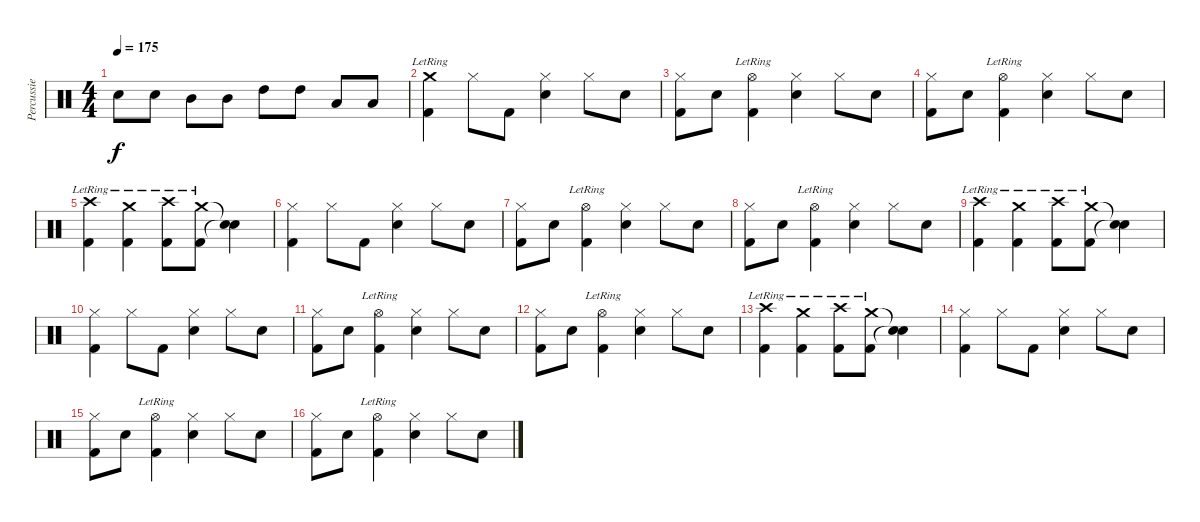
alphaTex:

\track ("Percussie" "Percussie") {instrument percussion}
\staff {score}
\articulation defaults
\ts (4 4)
\tempo 175
\clef neutral
\ks c "Snare (hit) 2".8{dy f} "Snare (hit) 2".8 "Mid Tom (hit)".8 "Mid Tom (hit)".8 "High Tom (hit)".8 "High Tom (hit)".8 "Low Tom (hit)".8 "Low Tom (hit)".8
|
("Crash medium (hit)"{lr} "Kick (hit) 2").4 "Hi-Hat (closed)".8 "Kick (hit) 2".8 ("Hi-Hat (closed)" "Snare (hit) 2").4 "Hi-Hat (closed)".8 "Snare (hit) 2".8 |
("Hi-Hat (closed)" "Kick (hit) 2").8 "Snare (hit) 2".8 ("Hi-Hat (open)"{lr} "Kick (hit) 2").4 ("Hi-Hat (closed)" "Snare (hit) 2").4 "Hi-Hat (closed)".8 "Snare (hit) 2".8 |
("Hi-Hat (closed)" "Kick (hit) 2").8 "Snare (hit) 2".8 ("Hi-Hat (open)"{lr} "Kick (hit) 2").4 ("Hi-Hat (closed)" "Snare (hit) 2").4 "Hi-Hat (closed)".8 "Snare (hit) 2".8 |
("Crash high (hit)"{lr} "Kick (hit) 2").4 ("Crash medium (hit)"{lr} "Kick (hit) 2").4 ("Crash high (hit)"{lr} "Kick (hit) 2").8 ("Crash medium (hit)"{lr} "Kick (hit) 2").8 ("Snare (hit)"{t} "Snare (hit)"{t}).4 |
("Hi-Hat (closed)" "Kick (hit) 2").4 "Hi-Hat (closed)".8 "Kick (hit) 2".8 ("Hi-Hat (closed)" "Snare (hit) 2").4 "Hi-Hat (closed)".8 "Snare (hit) 2".8 |
("Hi-Hat (closed)" "Kick (hit) 2").8 "Snare (hit) 2".8 ("Hi-Hat (open)"{lr} "Kick (hit) 2").4 ("Hi-Hat (closed)" "Snare (hit) 2").4 "Hi-Hat (closed)".8 "Snare (hit) 2".8 |
("Hi-Hat (closed)" "Kick (hit) 2").8 "Snare (hit) 2".8 ("Hi-Hat (open)"{lr} "Kick (hit) 2").4 ("Hi-Hat (closed)" "Snare (hit) 2").4 "Hi-Hat (closed)".8 "Snare (hit) 2".8 |
("Crash high (hit)"{lr} "Kick (hit) 2").4 ("Crash medium (hit)"{lr} "Kick (hit) 2").4 ("Crash high (hit)"{lr} "Kick (hit) 2").8 ("Crash medium (hit)"{lr} "Kick (hit) 2").8 ("Snare (hit)"{t} "Snare (hit)"{t}).4 |
("Hi-Hat (closed)" "Kick (hit) 2").4 "Hi-Hat (closed)".8 "Kick (hit) 2".8 ("Hi-Hat (closed)" "Snare (hit) 2").4 "Hi-Hat (closed)".8 "Snare (hit) 2".8 |
("Hi-Hat (closed)" "Kick (hit) 2").8 "Snare (hit) 2".8 ("Hi-Hat (open)"{lr} "Kick (hit) 2").4 ("Hi-Hat (closed)" "Snare (hit) 2").4 "Hi-Hat (closed)".8 "Snare (hit) 2".8 |
("Hi-Hat (closed)" "Kick (hit) 2").8 "Snare (hit) 2".8 ("Hi-Hat (open)"{lr} "Kick (hit) 2").4 ("Hi-Hat (closed)" "Snare (hit) 2").4 "Hi-Hat (closed)".8 "Snare (hit) 2".8 |
("Crash high (hit)"{lr} "Kick (hit) 2").4 ("Crash medium (hit)"{lr} "Kick (hit) 2").4 ("Crash high (hit)"{lr} "Kick (hit) 2").8 ("Crash medium (hit)"{lr} "Kick (hit) 2").8 ("Snare (hit)"{t} "Snare (hit)"{t}).4 |
("Hi-Hat (closed)" "Kick (hit) 2").4 "Hi-Hat (closed)".8 "Kick (hit) 2".8 ("Hi-Hat (closed)" "Snare (hit) 2").4 "Hi-Hat (closed)".8 "Snare (hit) 2".8 |
("Hi-Hat (closed)" "Kick (hit) 2").8 "Snare (hit) 2".8 ("Hi-Hat (open)"{lr} "Kick (hit) 2").4 ("Hi-Hat (closed)" "Snare (hit) 2").4 "Hi-Hat (closed)".8 "Snare (hit) 2".8 |
("Hi-Hat (closed)" "Kick (hit) 2").8 "Snare (hit) 2".8 ("Hi-Hat (open)"{lr} "Kick (hit) 2").4 ("Hi-Hat (closed)" "Snare (hit) 2").4 "Hi-Hat (closed)".8 "Snare (hit) 2".8
